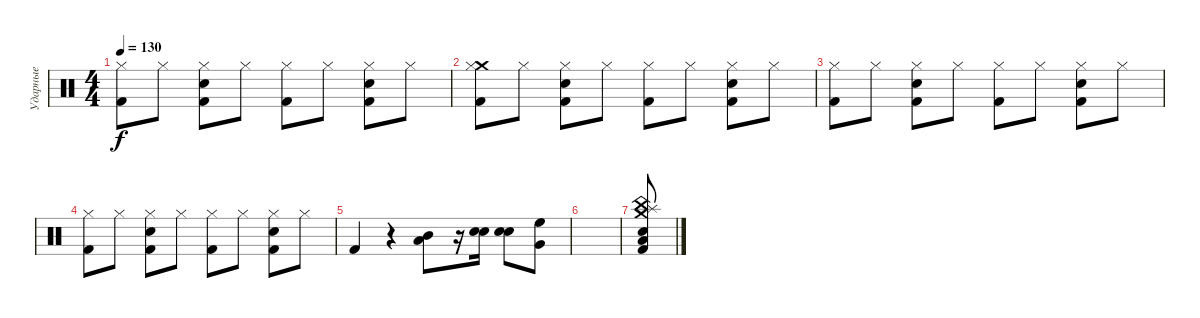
\track ("Ударные" "Ударные") {solo instrument percussion}
\staff {score}
\articulation defaults
\ts (4 4)
\tempo 130
\clef neutral
\ks c
("Kick (hit) 2" "Hi-Hat (closed)").8{dy f} "Hi-Hat (closed)".8 ("Kick (hit) 2" "Hand Clap (hit)" "Hi-Hat (closed)").8 "Hi-Hat (closed)".8 ("Kick (hit) 2" "Hi-Hat (closed)").8 "Hi-Hat (closed)".8 ("Kick (hit) 2" "Hand Clap (hit)" "Hi-Hat (closed)").8 "Hi-Hat (closed)".8 |
("Kick (hit) 2" "Crash medium (hit)" "Hi-Hat (closed)").8 "Hi-Hat (closed)".8 ("Kick (hit) 2" "Hand Clap (hit)" "Hi-Hat (closed)").8 "Hi-Hat (closed)".8 ("Kick (hit) 2" "Hi-Hat (closed)").8 "Hi-Hat (closed)".8 ("Kick (hit) 2" "Hand Clap (hit)" "Hi-Hat (closed)").8 "Hi-Hat (closed)".8 |
("Kick (hit) 2" "Hi-Hat (closed)").8 "Hi-Hat (closed)".8 ("Kick (hit) 2" "Hand Clap (hit)" "Hi-Hat (closed)").8 "Hi-Hat (closed)".8 ("Kick (hit) 2" "Hi-Hat (closed)").8 "Hi-Hat (closed)".8 ("Kick (hit) 2" "Hand Clap (hit)" "Hi-Hat (closed)").8 "Hi-Hat (closed)".8 |
("Kick (hit) 2" "Hi-Hat (closed)").8 "Hi-Hat (closed)".8 ("Kick (hit) 2" "Hand Clap (hit)" "Hi-Hat (closed)").8 "Hi-Hat (closed)".8 ("Kick (hit) 2" "Hi-Hat (closed)").8 "Hi-Hat (closed)".8 ("Kick (hit) 2" "Hand Clap (hit)" "Hi-Hat (closed)").8 "Hi-Hat (closed)".8 |
"Kick (hit) 2".4 r.4 ("Mid Tom (hit)" "Low Floor Tom (hit)").8 r.16 ("Hand Clap (hit)" "Electric Snare (hit)").16 ("Hand Clap (hit)" "Electric Snare (hit)").8 ("Very Low Tom (hit)" "High Floor Tom (hit)").8 |
|
("Snare (hit) 2" "Kick (hit) 2" "Crash medium (hit)" "Splash (hit)" "China (hit)" "Low Tom (hit)").8
